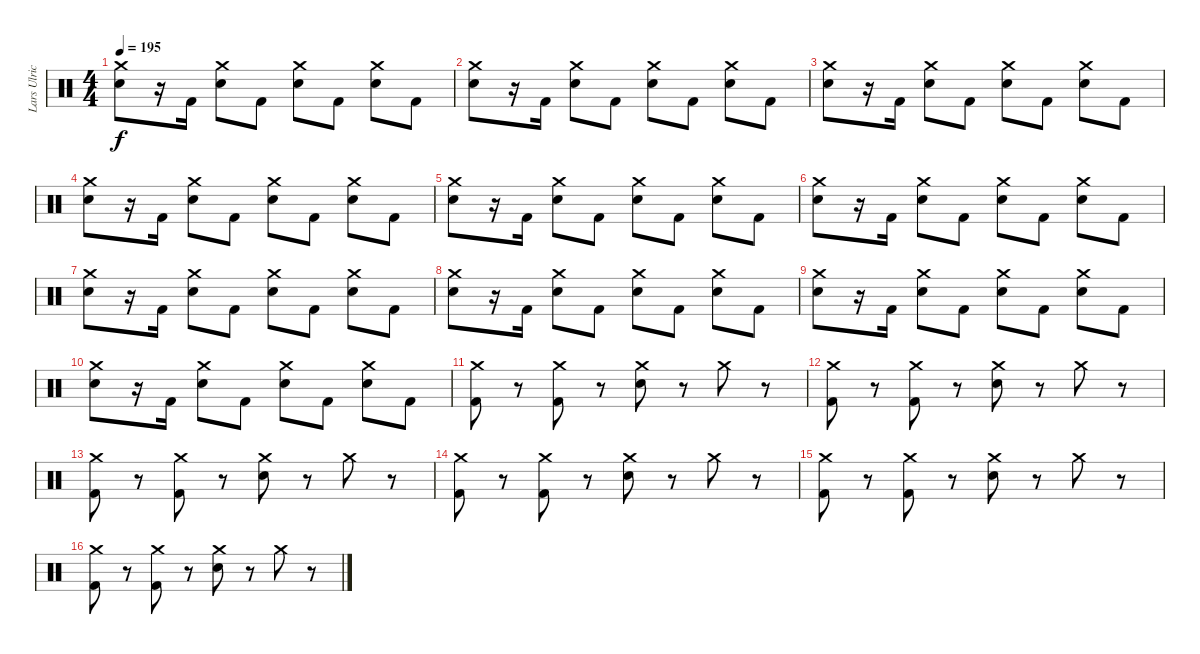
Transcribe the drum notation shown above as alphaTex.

\track ("Lars Ulrich" "Lars Ulric") {instrument percussion}
\staff {score}
\articulation defaults
\ts (4 4)
\tempo 195
\clef neutral
\ks c
("Crash medium (hit)" "Electric Snare (hit)").8{dy f} r.16 "Kick (hit) 2".16 ("Crash medium (hit)" "Electric Snare (hit)").8 "Kick (hit) 2".8 ("Crash medium (hit)" "Electric Snare (hit)").8 "Kick (hit) 2".8 ("Crash medium (hit)" "Electric Snare (hit)").8 "Kick (hit) 2".8 |
("Crash medium (hit)" "Electric Snare (hit)").8 r.16 "Kick (hit) 2".16 ("Crash medium (hit)" "Electric Snare (hit)").8 "Kick (hit) 2".8 ("Crash medium (hit)" "Electric Snare (hit)").8 "Kick (hit) 2".8 ("Crash medium (hit)" "Electric Snare (hit)").8 "Kick (hit) 2".8 |
("Crash medium (hit)" "Electric Snare (hit)").8 r.16 "Kick (hit) 2".16 ("Crash medium (hit)" "Electric Snare (hit)").8 "Kick (hit) 2".8 ("Crash medium (hit)" "Electric Snare (hit)").8 "Kick (hit) 2".8 ("Crash medium (hit)" "Electric Snare (hit)").8 "Kick (hit) 2".8 |
("Crash medium (hit)" "Electric Snare (hit)").8 r.16 "Kick (hit) 2".16 ("Crash medium (hit)" "Electric Snare (hit)").8 "Kick (hit) 2".8 ("Crash medium (hit)" "Electric Snare (hit)").8 "Kick (hit) 2".8 ("Crash medium (hit)" "Electric Snare (hit)").8 "Kick (hit) 2".8 |
("Crash medium (hit)" "Electric Snare (hit)").8 r.16 "Kick (hit) 2".16 ("Crash medium (hit)" "Electric Snare (hit)").8 "Kick (hit) 2".8 ("Crash medium (hit)" "Electric Snare (hit)").8 "Kick (hit) 2".8 ("Crash medium (hit)" "Electric Snare (hit)").8 "Kick (hit) 2".8 |
("Crash medium (hit)" "Electric Snare (hit)").8 r.16 "Kick (hit) 2".16 ("Crash medium (hit)" "Electric Snare (hit)").8 "Kick (hit) 2".8 ("Crash medium (hit)" "Electric Snare (hit)").8 "Kick (hit) 2".8 ("Crash medium (hit)" "Electric Snare (hit)").8 "Kick (hit) 2".8 |
("Crash medium (hit)" "Electric Snare (hit)").8 r.16 "Kick (hit) 2".16 ("Crash medium (hit)" "Electric Snare (hit)").8 "Kick (hit) 2".8 ("Crash medium (hit)" "Electric Snare (hit)").8 "Kick (hit) 2".8 ("Crash medium (hit)" "Electric Snare (hit)").8 "Kick (hit) 2".8 |
("Crash medium (hit)" "Electric Snare (hit)").8 r.16 "Kick (hit) 2".16 ("Crash medium (hit)" "Electric Snare (hit)").8 "Kick (hit) 2".8 ("Crash medium (hit)" "Electric Snare (hit)").8 "Kick (hit) 2".8 ("Crash medium (hit)" "Electric Snare (hit)").8 "Kick (hit) 2".8 |
("Crash medium (hit)" "Electric Snare (hit)").8 r.16 "Kick (hit) 2".16 ("Crash medium (hit)" "Electric Snare (hit)").8 "Kick (hit) 2".8 ("Crash medium (hit)" "Electric Snare (hit)").8 "Kick (hit) 2".8 ("Crash medium (hit)" "Electric Snare (hit)").8 "Kick (hit) 2".8 |
("Crash medium (hit)" "Electric Snare (hit)").8 r.16 "Kick (hit) 2".16 ("Crash medium (hit)" "Electric Snare (hit)").8 "Kick (hit) 2".8 ("Crash medium (hit)" "Electric Snare (hit)").8 "Kick (hit) 2".8 ("Crash medium (hit)" "Electric Snare (hit)").8 "Kick (hit) 2".8 |
("Crash medium (hit)" "Kick (hit) 2").8 r.8 ("Crash medium (hit)" "Kick (hit) 2").8 r.8 ("Crash medium (hit)" "Electric Snare (hit)").8 r.8 "Crash medium (hit)".8 r.8 |
("Crash medium (hit)" "Kick (hit) 2").8 r.8 ("Crash medium (hit)" "Kick (hit) 2").8 r.8 ("Crash medium (hit)" "Electric Snare (hit)").8 r.8 "Crash medium (hit)".8 r.8 |
("Crash medium (hit)" "Kick (hit) 2").8 r.8 ("Crash medium (hit)" "Kick (hit) 2").8 r.8 ("Crash medium (hit)" "Electric Snare (hit)").8 r.8 "Crash medium (hit)".8 r.8 |
("Crash medium (hit)" "Kick (hit) 2").8 r.8 ("Crash medium (hit)" "Kick (hit) 2").8 r.8 ("Crash medium (hit)" "Electric Snare (hit)").8 r.8 "Crash medium (hit)".8 r.8 |
("Crash medium (hit)" "Kick (hit) 2").8 r.8 ("Crash medium (hit)" "Kick (hit) 2").8 r.8 ("Crash medium (hit)" "Electric Snare (hit)").8 r.8 "Crash medium (hit)".8 r.8 |
("Crash medium (hit)" "Kick (hit) 2").8 r.8 ("Crash medium (hit)" "Kick (hit) 2").8 r.8 ("Crash medium (hit)" "Electric Snare (hit)").8 r.8 "Crash medium (hit)".8 r.8
